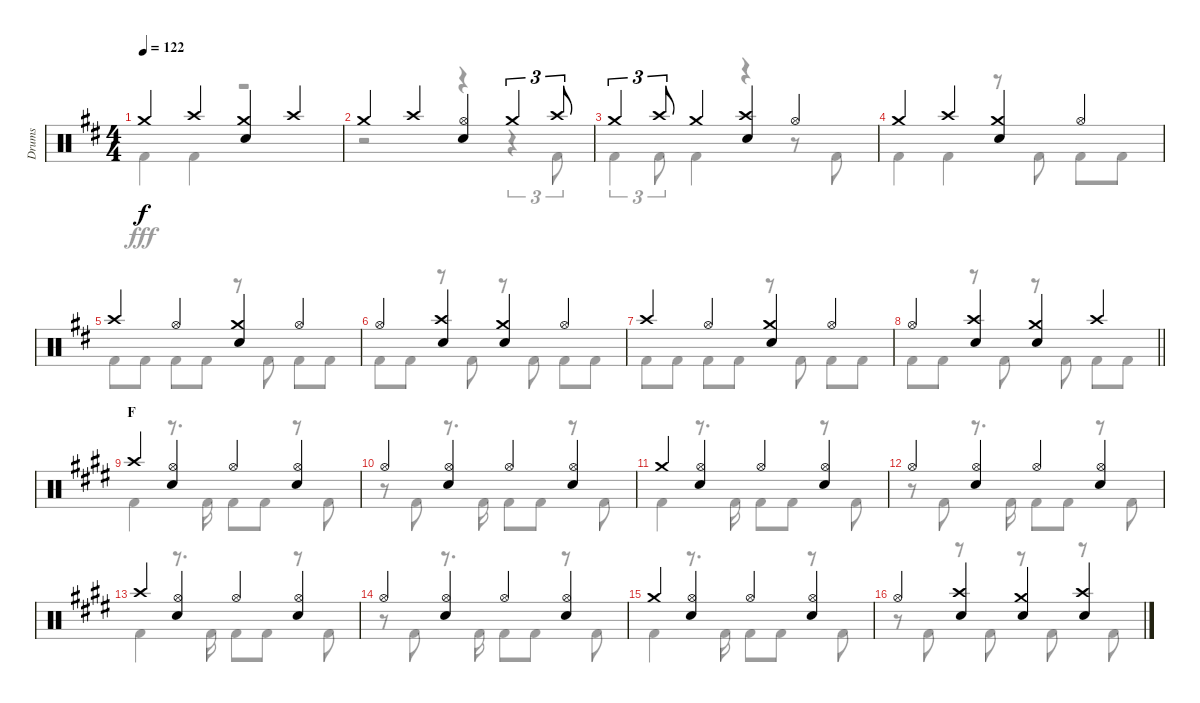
\track ("Drums" "Drums") {instrument percussion}
\staff {score}
\articulation defaults
\voice
\ts (4 4)
\tempo 122
\clef neutral
\ks d "Crash medium (hit)".4{dy f} "Crash high (hit)".4
("Crash medium (hit)" "Snare (hit) 2").4 "Crash high (hit)".4 |
"Crash medium (hit)".4 "Crash high (hit)".4 ("Hi-Hat (open)" "Snare (hit) 2").4 "Crash medium (hit)".4{tu (3 2)} "Crash high (hit)".8{tu (3 2)} |
"Crash medium (hit)".4{tu (3 2)} "Crash high (hit)".8{tu (3 2)} "Crash medium (hit)".4 ("Crash high (hit)" "Snare (hit) 2").4 "Hi-Hat (open)".4 |
"Crash medium (hit)".4 "Crash high (hit)".4 ("Crash medium (hit)" "Snare (hit) 2").4 "Hi-Hat (open)".4 |
"Crash high (hit)".4 "Hi-Hat (open)".4 ("Crash medium (hit)" "Snare (hit) 2").4 "Hi-Hat (open)".4 |
"Hi-Hat (open)".4 ("Crash high (hit)" "Snare (hit) 2").4 ("Crash medium (hit)" "Snare (hit) 2").4 "Hi-Hat (open)".4 |
"Crash high (hit)".4 "Hi-Hat (open)".4 ("Crash medium (hit)" "Snare (hit) 2").4 "Hi-Hat (open)".4 |
\barLineRight lightlight "Hi-Hat (open)".4
("Crash high (hit)" "Snare (hit) 2").4 ("Crash medium (hit)" "Snare (hit) 2").4 "Crash high (hit)".4 |
\section ("" "F")
\ks e "Crash high (hit)".4
("Hi-Hat (open)" "Snare (hit) 2").4 "Hi-Hat (open)".4 ("Hi-Hat (open)" "Snare (hit) 2").4 |
"Hi-Hat (open)".4 ("Hi-Hat (open)" "Snare (hit) 2").4 "Hi-Hat (open)".4 ("Hi-Hat (open)" "Snare (hit) 2").4 |
"Crash medium (hit)".4 ("Hi-Hat (open)" "Snare (hit) 2").4 "Hi-Hat (open)".4 ("Hi-Hat (open)" "Snare (hit) 2").4 |
"Hi-Hat (open)".4 ("Hi-Hat (open)" "Snare (hit) 2").4 "Hi-Hat (open)".4 ("Hi-Hat (open)" "Snare (hit) 2").4 |
"Crash high (hit)".4 ("Hi-Hat (open)" "Snare (hit) 2").4 "Hi-Hat (open)".4 ("Hi-Hat (open)" "Snare (hit) 2").4 |
"Hi-Hat (open)".4 ("Hi-Hat (open)" "Snare (hit) 2").4 "Hi-Hat (open)".4 ("Hi-Hat (open)" "Snare (hit) 2").4 |
"Crash medium (hit)".4 ("Hi-Hat (open)" "Snare (hit) 2").4 "Hi-Hat (open)".4 ("Hi-Hat (open)" "Snare (hit) 2").4 |
"Hi-Hat (open)".4 ("Crash high (hit)" "Snare (hit) 2").4 ("Crash medium (hit)" "Snare (hit) 2").4 ("Crash high (hit)" "Snare (hit) 2").4
\voice
\clef neutral
\ottava regular
\simile none
\ks d "Kick (hit) 2".4{dy fff} "Kick (hit) 2".4
r.2 |
r.2 r.4 r.4{tu (3 2)} "Kick (hit) 2".8{tu (3 2)} |
"Kick (hit) 2".4{tu (3 2)} "Kick (hit) 2".8{tu (3 2)} "Kick (hit) 2".4 r.4 r.8 "Kick (hit) 2".8 |
"Kick (hit) 2".4 "Kick (hit) 2".4 r.8 "Kick (hit) 2".8 "Kick (hit) 2".8 "Kick (hit) 2".8 |
"Kick (hit) 2".8 "Kick (hit) 2".8 "Kick (hit) 2".8 "Kick (hit) 2".8 r.8 "Kick (hit) 2".8 "Kick (hit) 2".8 "Kick (hit) 2".8 |
"Kick (hit) 2".8 "Kick (hit) 2".8 r.8 "Kick (hit) 2".8 r.8 "Kick (hit) 2".8 "Kick (hit) 2".8 "Kick (hit) 2".8 |
"Kick (hit) 2".8 "Kick (hit) 2".8 "Kick (hit) 2".8 "Kick (hit) 2".8 r.8 "Kick (hit) 2".8 "Kick (hit) 2".8 "Kick (hit) 2".8 |
\barLineRight lightlight "Kick (hit) 2".8 "Kick (hit) 2".8
r.8 "Kick (hit) 2".8 r.8 "Kick (hit) 2".8 "Kick (hit) 2".8 "Kick (hit) 2".8 |
\ks e "Kick (hit) 2".4
r.8{d} "Kick (hit) 2".16 "Kick (hit) 2".8 "Kick (hit) 2".8 r.8 "Kick (hit) 2".8 |
r.8 "Kick (hit) 2".8 r.8{d} "Kick (hit) 2".16 "Kick (hit) 2".8 "Kick (hit) 2".8 r.8 "Kick (hit) 2".8 |
"Kick (hit) 2".4 r.8{d} "Kick (hit) 2".16 "Kick (hit) 2".8 "Kick (hit) 2".8 r.8 "Kick (hit) 2".8 |
r.8 "Kick (hit) 2".8 r.8{d} "Kick (hit) 2".16 "Kick (hit) 2".8 "Kick (hit) 2".8 r.8 "Kick (hit) 2".8 |
"Kick (hit) 2".4 r.8{d} "Kick (hit) 2".16 "Kick (hit) 2".8 "Kick (hit) 2".8 r.8 "Kick (hit) 2".8 |
r.8 "Kick (hit) 2".8 r.8{d} "Kick (hit) 2".16 "Kick (hit) 2".8 "Kick (hit) 2".8 r.8 "Kick (hit) 2".8 |
"Kick (hit) 2".4 r.8{d} "Kick (hit) 2".16 "Kick (hit) 2".8 "Kick (hit) 2".8 r.8 "Kick (hit) 2".8 |
r.8 "Kick (hit) 2".8 r.8 "Kick (hit) 2".8 r.8 "Kick (hit) 2".8 r.8 "Kick (hit) 2".8
